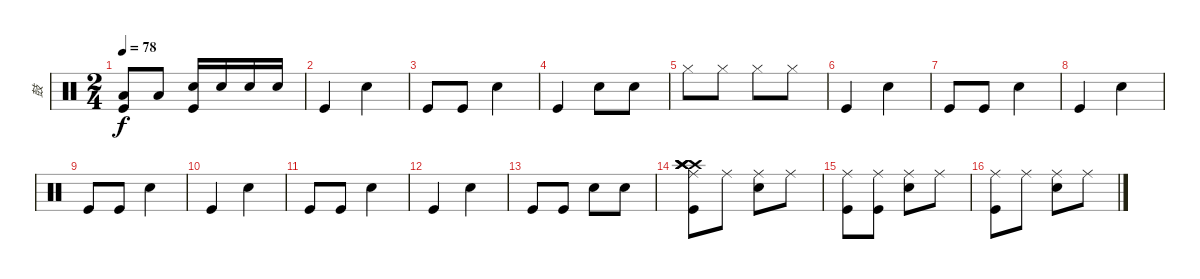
\track ("鼓" "鼓") {instrument percussion}
\staff {score}
\articulation defaults
\ts (2 4)
\tempo 78
\clef neutral
\ks c
("Low Floor Tom (hit)" "Kick (hit)").8{dy f} "Low Floor Tom (hit)".8 ("Metronome (bell)" "Kick (hit)").16 "Metronome (bell)".16 "Metronome (bell)".16 "Metronome (bell)".16 |
"Kick (hit)".4 "Snare (hit) 2".4 |
"Kick (hit)".8 "Kick (hit)".8 "Snare (hit) 2".4 |
"Kick (hit)".4 "Snare (hit) 2".8 "Snare (hit) 2".8 |
"Hi-Hat (closed)".8 "Hi-Hat (closed)".8 "Hi-Hat (closed)".8 "Hi-Hat (closed)".8 |
"Kick (hit)".4 "Metronome (bell)".4 |
"Kick (hit)".8 "Kick (hit)".8 "Metronome (bell)".4 |
"Kick (hit)".4 "Metronome (bell)".4 |
"Kick (hit)".8 "Kick (hit)".8 "Metronome (bell)".4 |
"Kick (hit)".4 "Metronome (bell)".4 |
"Kick (hit)".8 "Kick (hit)".8 "Metronome (bell)".4 |
"Kick (hit)".4 "Metronome (bell)".4 |
"Kick (hit)".8 "Kick (hit)".8 "Metronome (bell)".8 "Metronome (bell)".8 |
("Ride (middle)" "Kick (hit)" "Crash high (hit)" "Crash high (hit)" "Crash high (hit)" "Crash high (hit)").8 "Ride (middle)".8 ("Ride (middle)" "Metronome (bell)").8 "Ride (middle)".8 |
("Ride (middle)" "Kick (hit)").8 ("Ride (middle)" "Kick (hit)").8 ("Ride (middle)" "Metronome (bell)").8 "Ride (middle)".8 |
("Ride (middle)" "Kick (hit)").8 "Ride (middle)".8 ("Ride (middle)" "Metronome (bell)").8 "Ride (middle)".8
